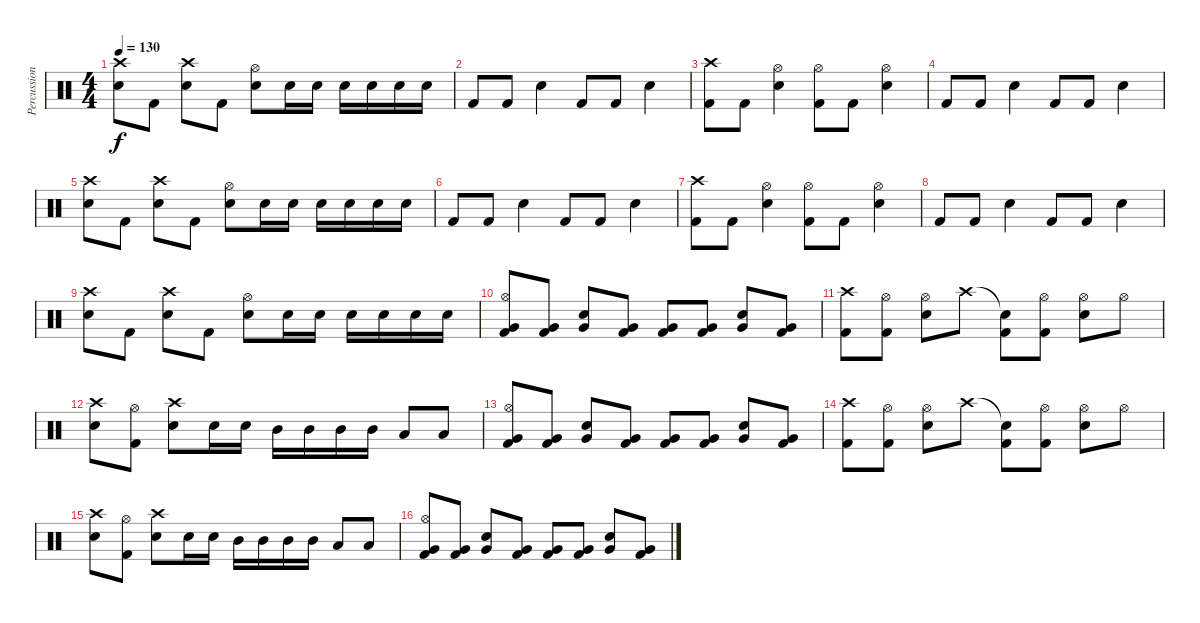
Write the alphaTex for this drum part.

\track ("Percussion" "Percussion") {instrument percussion}
\staff {score}
\articulation defaults
\ts (4 4)
\tempo 130
\clef neutral
\ks c
("Crash high (hit)" "Snare (hit) 2").8{dy f} "Kick (hit) 2".8 ("Crash high (hit)" "Snare (hit) 2").8 "Kick (hit) 2".8 ("Hi-Hat (open)" "Snare (hit) 2").8 "Snare (hit) 2".16 "Snare (hit) 2".16 "Snare (hit) 2".16 "Snare (hit) 2".16 "Snare (hit) 2".16 "Snare (hit) 2".16 |
"Kick (hit) 2".8 "Kick (hit) 2".8 "Snare (hit) 2".4 "Kick (hit) 2".8 "Kick (hit) 2".8 "Snare (hit) 2".4 |
("Crash high (hit)" "Kick (hit) 2").8 "Kick (hit) 2".8 ("Hi-Hat (open)" "Snare (hit) 2").4 ("Hi-Hat (open)" "Kick (hit) 2").8 "Kick (hit) 2".8 ("Hi-Hat (open)" "Snare (hit) 2").4 |
"Kick (hit) 2".8 "Kick (hit) 2".8 "Snare (hit) 2".4 "Kick (hit) 2".8 "Kick (hit) 2".8 "Snare (hit) 2".4 |
("Crash high (hit)" "Snare (hit) 2").8 "Kick (hit) 2".8 ("Crash high (hit)" "Snare (hit) 2").8 "Kick (hit) 2".8 ("Hi-Hat (open)" "Snare (hit) 2").8 "Snare (hit) 2".16 "Snare (hit) 2".16 "Snare (hit) 2".16 "Snare (hit) 2".16 "Snare (hit) 2".16 "Snare (hit) 2".16 |
"Kick (hit) 2".8 "Kick (hit) 2".8 "Snare (hit) 2".4 "Kick (hit) 2".8 "Kick (hit) 2".8 "Snare (hit) 2".4 |
("Crash high (hit)" "Kick (hit) 2").8 "Kick (hit) 2".8 ("Hi-Hat (open)" "Snare (hit) 2").4 ("Hi-Hat (open)" "Kick (hit) 2").8 "Kick (hit) 2".8 ("Hi-Hat (open)" "Snare (hit) 2").4 |
"Kick (hit) 2".8 "Kick (hit) 2".8 "Snare (hit) 2".4 "Kick (hit) 2".8 "Kick (hit) 2".8 "Snare (hit) 2".4 |
("Crash high (hit)" "Snare (hit) 2").8 "Kick (hit) 2".8 ("Crash high (hit)" "Snare (hit) 2").8 "Kick (hit) 2".8 ("Hi-Hat (open)" "Snare (hit) 2").8 "Snare (hit) 2".16 "Snare (hit) 2".16 "Snare (hit) 2".16 "Snare (hit) 2".16 "Snare (hit) 2".16 "Snare (hit) 2".16 |
("Hi-Hat (open)" "Very Low Tom (hit)" "Kick (hit) 2").8 ("Very Low Tom (hit)" "Kick (hit) 2").8 ("Very Low Tom (hit)" "Snare (hit) 2").8 ("Very Low Tom (hit)" "Kick (hit) 2").8 ("Very Low Tom (hit)" "Kick (hit) 2").8 ("Very Low Tom (hit)" "Kick (hit) 2").8 ("Very Low Tom (hit)" "Snare (hit) 2").8 ("Very Low Tom (hit)" "Kick (hit) 2").8 |
("Crash high (hit)" "Kick (hit) 2").8 ("Hi-Hat (open)" "Kick (hit) 2").8 ("Hi-Hat (open)" "Snare (hit) 2").8 "Crash high (hit)".8 ("Snare (hit)"{t} "Kick (hit) 2").8 ("Hi-Hat (open)" "Kick (hit) 2").8 ("Hi-Hat (open)" "Snare (hit) 2").8 "Hi-Hat (open)".8 |
("Crash high (hit)" "Snare (hit) 2").8 ("Hi-Hat (open)" "Kick (hit) 2").8 ("Crash high (hit)" "Snare (hit) 2").8 "Snare (hit) 2".16 "Snare (hit) 2".16 "Mid Tom (hit)".16 "Mid Tom (hit)".16 "Mid Tom (hit)".16 "Mid Tom (hit)".16 "Low Tom (hit)".8 "Low Tom (hit)".8 |
("Hi-Hat (open)" "Very Low Tom (hit)" "Kick (hit) 2").8 ("Very Low Tom (hit)" "Kick (hit) 2").8 ("Very Low Tom (hit)" "Snare (hit) 2").8 ("Very Low Tom (hit)" "Kick (hit) 2").8 ("Very Low Tom (hit)" "Kick (hit) 2").8 ("Very Low Tom (hit)" "Kick (hit) 2").8 ("Very Low Tom (hit)" "Snare (hit) 2").8 ("Very Low Tom (hit)" "Kick (hit) 2").8 |
("Crash high (hit)" "Kick (hit) 2").8 ("Hi-Hat (open)" "Kick (hit) 2").8 ("Hi-Hat (open)" "Snare (hit) 2").8 "Crash high (hit)".8 ("Snare (hit)"{t} "Kick (hit) 2").8 ("Hi-Hat (open)" "Kick (hit) 2").8 ("Hi-Hat (open)" "Snare (hit) 2").8 "Hi-Hat (open)".8 |
("Crash high (hit)" "Snare (hit) 2").8 ("Hi-Hat (open)" "Kick (hit) 2").8 ("Crash high (hit)" "Snare (hit) 2").8 "Snare (hit) 2".16 "Snare (hit) 2".16 "Mid Tom (hit)".16 "Mid Tom (hit)".16 "Mid Tom (hit)".16 "Mid Tom (hit)".16 "Low Tom (hit)".8 "Low Tom (hit)".8 |
("Hi-Hat (open)" "Very Low Tom (hit)" "Kick (hit) 2").8 ("Very Low Tom (hit)" "Kick (hit) 2").8 ("Very Low Tom (hit)" "Snare (hit) 2").8 ("Very Low Tom (hit)" "Kick (hit) 2").8 ("Very Low Tom (hit)" "Kick (hit) 2").8 ("Very Low Tom (hit)" "Kick (hit) 2").8 ("Very Low Tom (hit)" "Snare (hit) 2").8 ("Very Low Tom (hit)" "Kick (hit) 2").8
